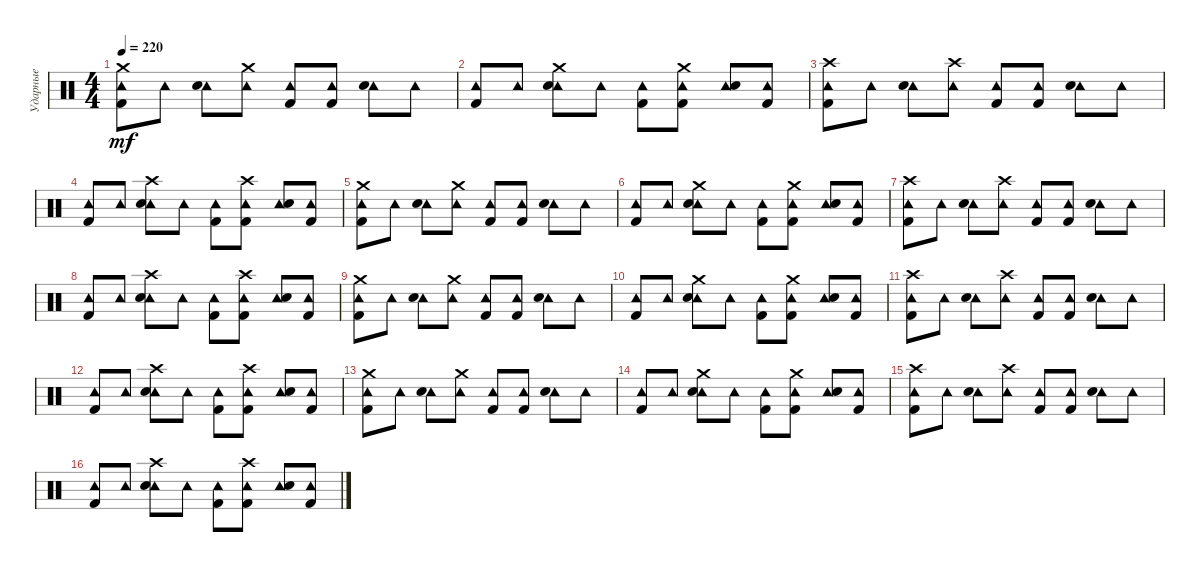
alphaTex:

\track ("Ударные" "Ударные") {instrument percussion}
\staff {score}
\articulation defaults
\ts (4 4)
\tempo 220
\clef neutral
\ks c
("Crash medium (hit)" "Tambourine (hit)" "Kick (hit) 2").8{dy mf} "Tambourine (hit)".8 ("Tambourine (hit)" "Electric Snare (hit)").8 ("Crash medium (hit)" "Tambourine (hit)").8 ("Tambourine (hit)" "Kick (hit) 2").8 ("Tambourine (hit)" "Kick (hit) 2").8 ("Tambourine (hit)" "Electric Snare (hit)").8 "Tambourine (hit)".8 |
("Tambourine (hit)" "Kick (hit) 2").8 "Tambourine (hit)".8 ("Crash medium (hit)" "Tambourine (hit)" "Electric Snare (hit)").8 "Tambourine (hit)".8 ("Tambourine (hit)" "Kick (hit) 2").8 ("Crash medium (hit)" "Tambourine (hit)" "Kick (hit) 2").8 ("Tambourine (hit)" "Electric Snare (hit)").8 ("Tambourine (hit)" "Kick (hit) 2").8 |
("Crash high (hit)" "Tambourine (hit)" "Kick (hit) 2").8 "Tambourine (hit)".8 ("Tambourine (hit)" "Electric Snare (hit)").8 ("Crash high (hit)" "Tambourine (hit)").8 ("Tambourine (hit)" "Kick (hit) 2").8 ("Tambourine (hit)" "Kick (hit) 2").8 ("Tambourine (hit)" "Electric Snare (hit)").8 "Tambourine (hit)".8 |
("Tambourine (hit)" "Kick (hit) 2").8 "Tambourine (hit)".8 ("Crash high (hit)" "Tambourine (hit)" "Electric Snare (hit)").8 "Tambourine (hit)".8 ("Tambourine (hit)" "Kick (hit) 2").8 ("Crash high (hit)" "Tambourine (hit)" "Kick (hit) 2").8 ("Tambourine (hit)" "Electric Snare (hit)").8 ("Tambourine (hit)" "Kick (hit) 2").8 |
("Crash medium (hit)" "Tambourine (hit)" "Kick (hit) 2").8 "Tambourine (hit)".8 ("Tambourine (hit)" "Electric Snare (hit)").8 ("Crash medium (hit)" "Tambourine (hit)").8 ("Tambourine (hit)" "Kick (hit) 2").8 ("Tambourine (hit)" "Kick (hit) 2").8 ("Tambourine (hit)" "Electric Snare (hit)").8 "Tambourine (hit)".8 |
("Tambourine (hit)" "Kick (hit) 2").8 "Tambourine (hit)".8 ("Crash medium (hit)" "Tambourine (hit)" "Electric Snare (hit)").8 "Tambourine (hit)".8 ("Tambourine (hit)" "Kick (hit) 2").8 ("Crash medium (hit)" "Tambourine (hit)" "Kick (hit) 2").8 ("Tambourine (hit)" "Electric Snare (hit)").8 ("Tambourine (hit)" "Kick (hit) 2").8 |
("Crash high (hit)" "Tambourine (hit)" "Kick (hit) 2").8 "Tambourine (hit)".8 ("Tambourine (hit)" "Electric Snare (hit)").8 ("Crash high (hit)" "Tambourine (hit)").8 ("Tambourine (hit)" "Kick (hit) 2").8 ("Tambourine (hit)" "Kick (hit) 2").8 ("Tambourine (hit)" "Electric Snare (hit)").8 "Tambourine (hit)".8 |
("Tambourine (hit)" "Kick (hit) 2").8 "Tambourine (hit)".8 ("Crash high (hit)" "Tambourine (hit)" "Electric Snare (hit)").8 "Tambourine (hit)".8 ("Tambourine (hit)" "Kick (hit) 2").8 ("Crash high (hit)" "Tambourine (hit)" "Kick (hit) 2").8 ("Tambourine (hit)" "Electric Snare (hit)").8 ("Tambourine (hit)" "Kick (hit) 2").8 |
("Crash medium (hit)" "Tambourine (hit)" "Kick (hit) 2").8 "Tambourine (hit)".8 ("Tambourine (hit)" "Electric Snare (hit)").8 ("Crash medium (hit)" "Tambourine (hit)").8 ("Tambourine (hit)" "Kick (hit) 2").8 ("Tambourine (hit)" "Kick (hit) 2").8 ("Tambourine (hit)" "Electric Snare (hit)").8 "Tambourine (hit)".8 |
("Tambourine (hit)" "Kick (hit) 2").8 "Tambourine (hit)".8 ("Crash medium (hit)" "Tambourine (hit)" "Electric Snare (hit)").8 "Tambourine (hit)".8 ("Tambourine (hit)" "Kick (hit) 2").8 ("Crash medium (hit)" "Tambourine (hit)" "Kick (hit) 2").8 ("Tambourine (hit)" "Electric Snare (hit)").8 ("Tambourine (hit)" "Kick (hit) 2").8 |
("Crash high (hit)" "Tambourine (hit)" "Kick (hit) 2").8 "Tambourine (hit)".8 ("Tambourine (hit)" "Electric Snare (hit)").8 ("Crash high (hit)" "Tambourine (hit)").8 ("Tambourine (hit)" "Kick (hit) 2").8 ("Tambourine (hit)" "Kick (hit) 2").8 ("Tambourine (hit)" "Electric Snare (hit)").8 "Tambourine (hit)".8 |
("Tambourine (hit)" "Kick (hit) 2").8 "Tambourine (hit)".8 ("Crash high (hit)" "Tambourine (hit)" "Electric Snare (hit)").8 "Tambourine (hit)".8 ("Tambourine (hit)" "Kick (hit) 2").8 ("Crash high (hit)" "Tambourine (hit)" "Kick (hit) 2").8 ("Tambourine (hit)" "Electric Snare (hit)").8 ("Tambourine (hit)" "Kick (hit) 2").8 |
("Crash medium (hit)" "Tambourine (hit)" "Kick (hit) 2").8 "Tambourine (hit)".8 ("Tambourine (hit)" "Electric Snare (hit)").8 ("Crash medium (hit)" "Tambourine (hit)").8 ("Tambourine (hit)" "Kick (hit) 2").8 ("Tambourine (hit)" "Kick (hit) 2").8 ("Tambourine (hit)" "Electric Snare (hit)").8 "Tambourine (hit)".8 |
("Tambourine (hit)" "Kick (hit) 2").8 "Tambourine (hit)".8 ("Crash medium (hit)" "Tambourine (hit)" "Electric Snare (hit)").8 "Tambourine (hit)".8 ("Tambourine (hit)" "Kick (hit) 2").8 ("Crash medium (hit)" "Tambourine (hit)" "Kick (hit) 2").8 ("Tambourine (hit)" "Electric Snare (hit)").8 ("Tambourine (hit)" "Kick (hit) 2").8 |
("Crash high (hit)" "Tambourine (hit)" "Kick (hit) 2").8 "Tambourine (hit)".8 ("Tambourine (hit)" "Electric Snare (hit)").8 ("Crash high (hit)" "Tambourine (hit)").8 ("Tambourine (hit)" "Kick (hit) 2").8 ("Tambourine (hit)" "Kick (hit) 2").8 ("Tambourine (hit)" "Electric Snare (hit)").8 "Tambourine (hit)".8 |
("Tambourine (hit)" "Kick (hit) 2").8 "Tambourine (hit)".8 ("Crash high (hit)" "Tambourine (hit)" "Electric Snare (hit)").8 "Tambourine (hit)".8 ("Tambourine (hit)" "Kick (hit) 2").8 ("Crash high (hit)" "Tambourine (hit)" "Kick (hit) 2").8 ("Tambourine (hit)" "Electric Snare (hit)").8 ("Tambourine (hit)" "Kick (hit) 2").8
